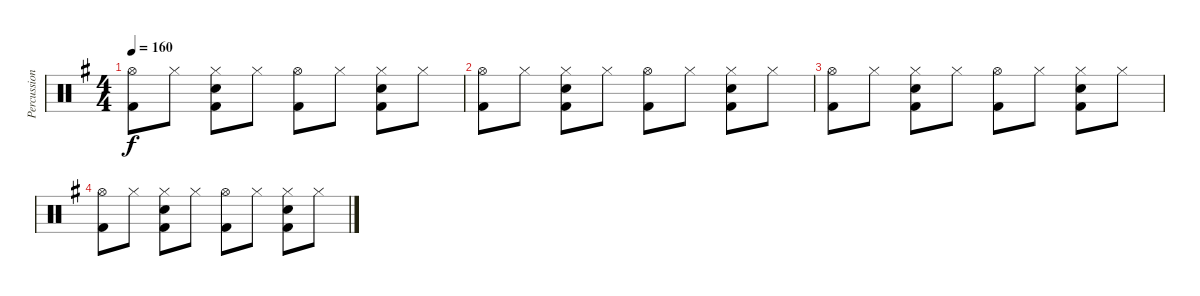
\track ("Percussions" "Percussion") {instrument percussion}
\staff {score}
\articulation defaults
\ts (4 4)
\tempo 160
\clef neutral
\ks g
("Hi-Hat (open)" "Kick (hit) 2").8{dy f} "Hi-Hat (closed)".8 ("Hi-Hat (closed)" "Snare (hit) 2" "Kick (hit) 2").8 "Hi-Hat (closed)".8 ("Hi-Hat (open)" "Kick (hit) 2").8 "Hi-Hat (closed)".8 ("Hi-Hat (closed)" "Snare (hit) 2" "Kick (hit) 2").8 "Hi-Hat (closed)".8 |
("Hi-Hat (open)" "Kick (hit) 2").8 "Hi-Hat (closed)".8 ("Hi-Hat (closed)" "Snare (hit) 2" "Kick (hit) 2").8 "Hi-Hat (closed)".8 ("Hi-Hat (open)" "Kick (hit) 2").8 "Hi-Hat (closed)".8 ("Hi-Hat (closed)" "Snare (hit) 2" "Kick (hit) 2").8 "Hi-Hat (closed)".8 |
("Hi-Hat (open)" "Kick (hit) 2").8 "Hi-Hat (closed)".8 ("Hi-Hat (closed)" "Snare (hit) 2" "Kick (hit) 2").8 "Hi-Hat (closed)".8 ("Hi-Hat (open)" "Kick (hit) 2").8 "Hi-Hat (closed)".8 ("Hi-Hat (closed)" "Snare (hit) 2" "Kick (hit) 2").8 "Hi-Hat (closed)".8 |
("Hi-Hat (open)" "Kick (hit) 2").8 "Hi-Hat (closed)".8 ("Hi-Hat (closed)" "Snare (hit) 2" "Kick (hit) 2").8 "Hi-Hat (closed)".8 ("Hi-Hat (open)" "Kick (hit) 2").8 "Hi-Hat (closed)".8 ("Hi-Hat (closed)" "Snare (hit) 2" "Kick (hit) 2").8 "Hi-Hat (closed)".8
